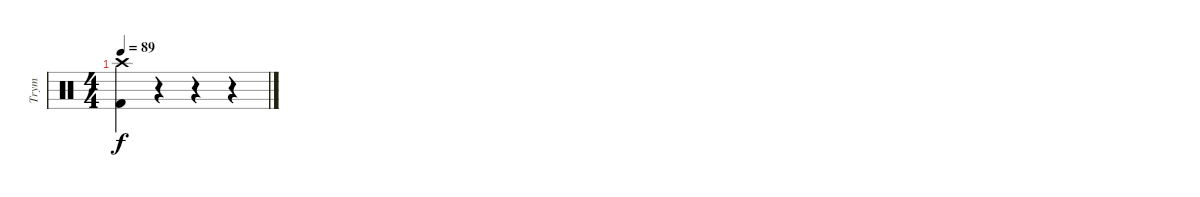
\track ("Trym" "Trym") {instrument percussion}
\staff {score}
\articulation defaults
\ts (4 4)
\tempo 89
\clef neutral
\ks c
("Crash high (hit)" "Kick (hit) 2").4{dy f} r.4 r.4 r.4
